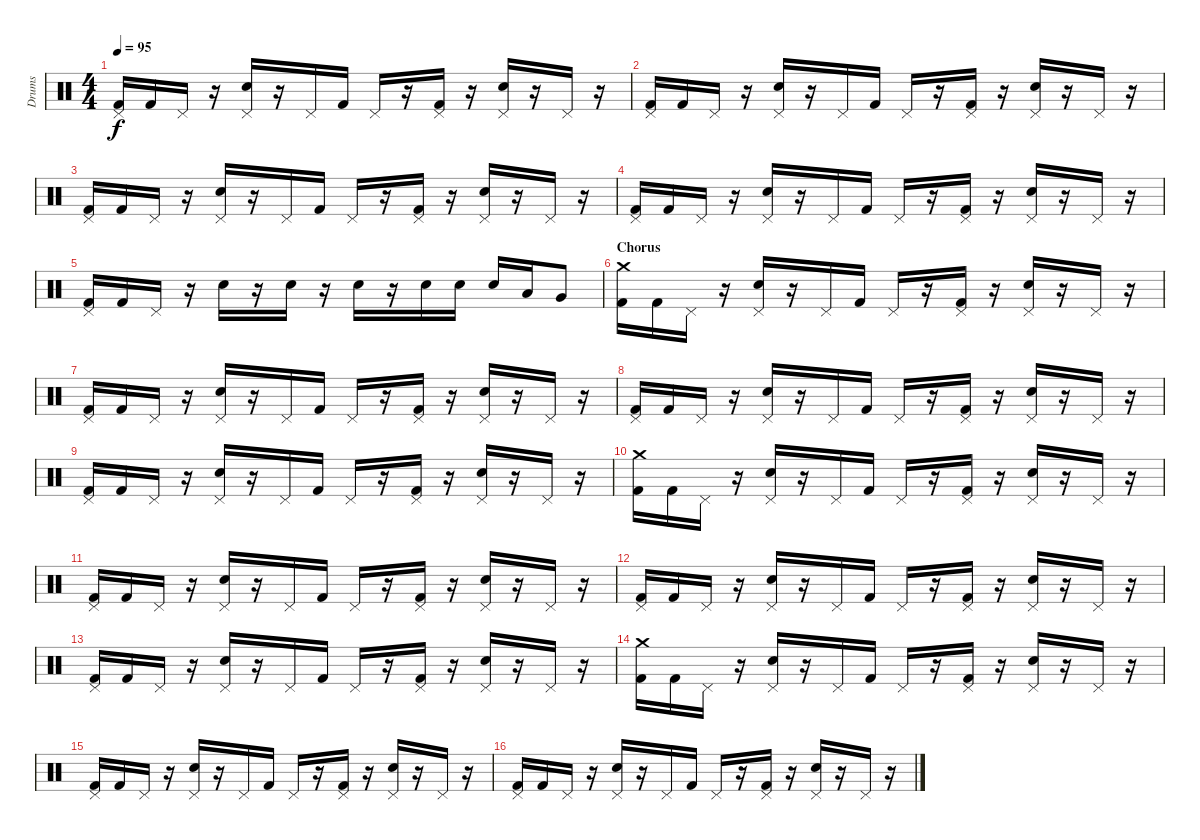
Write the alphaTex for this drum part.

\track ("Drums" "Drums") {instrument percussion}
\staff {score}
\articulation defaults
\ts (4 4)
\tempo 95
\clef neutral
\ks c
("Pedal Hi-Hat (hit)" "Kick (hit) 2").16{dy f} "Kick (hit) 2".16 "Pedal Hi-Hat (hit)".16 r.16 ("Pedal Hi-Hat (hit)" "Electric Snare (hit)").16 r.16 "Pedal Hi-Hat (hit)".16 "Kick (hit) 2".16 "Pedal Hi-Hat (hit)".16 r.16 ("Pedal Hi-Hat (hit)" "Kick (hit) 2").16 r.16 ("Pedal Hi-Hat (hit)" "Electric Snare (hit)").16 r.16 "Pedal Hi-Hat (hit)".16 r.16 |
("Pedal Hi-Hat (hit)" "Kick (hit) 2").16 "Kick (hit) 2".16 "Pedal Hi-Hat (hit)".16 r.16 ("Pedal Hi-Hat (hit)" "Electric Snare (hit)").16 r.16 "Pedal Hi-Hat (hit)".16 "Kick (hit) 2".16 "Pedal Hi-Hat (hit)".16 r.16 ("Pedal Hi-Hat (hit)" "Kick (hit) 2").16 r.16 ("Pedal Hi-Hat (hit)" "Electric Snare (hit)").16 r.16 "Pedal Hi-Hat (hit)".16 r.16 |
("Pedal Hi-Hat (hit)" "Kick (hit) 2").16 "Kick (hit) 2".16 "Pedal Hi-Hat (hit)".16 r.16 ("Pedal Hi-Hat (hit)" "Electric Snare (hit)").16 r.16 "Pedal Hi-Hat (hit)".16 "Kick (hit) 2".16 "Pedal Hi-Hat (hit)".16 r.16 ("Pedal Hi-Hat (hit)" "Kick (hit) 2").16 r.16 ("Pedal Hi-Hat (hit)" "Electric Snare (hit)").16 r.16 "Pedal Hi-Hat (hit)".16 r.16 |
("Pedal Hi-Hat (hit)" "Kick (hit) 2").16 "Kick (hit) 2".16 "Pedal Hi-Hat (hit)".16 r.16 ("Pedal Hi-Hat (hit)" "Electric Snare (hit)").16 r.16 "Pedal Hi-Hat (hit)".16 "Kick (hit) 2".16 "Pedal Hi-Hat (hit)".16 r.16 ("Pedal Hi-Hat (hit)" "Kick (hit) 2").16 r.16 ("Pedal Hi-Hat (hit)" "Electric Snare (hit)").16 r.16 "Pedal Hi-Hat (hit)".16 r.16 |
("Pedal Hi-Hat (hit)" "Kick (hit) 2").16 "Kick (hit) 2".16 "Pedal Hi-Hat (hit)".16 r.16 "Electric Snare (hit)".16 r.16 "Electric Snare (hit)".16 r.16 "Electric Snare (hit)".16 r.16 "Electric Snare (hit)".16 "Electric Snare (hit)".16 "Electric Snare (hit)".16 "Low Tom (hit)".16 "Very Low Tom (hit)".8 |
\section ("" "Chorus")
("Crash medium (hit)" "Kick (hit) 2").16 "Kick (hit) 2".16 "Pedal Hi-Hat (hit)".16 r.16 ("Pedal Hi-Hat (hit)" "Electric Snare (hit)").16 r.16 "Pedal Hi-Hat (hit)".16 "Kick (hit) 2".16 "Pedal Hi-Hat (hit)".16 r.16 ("Pedal Hi-Hat (hit)" "Kick (hit) 2").16 r.16 ("Pedal Hi-Hat (hit)" "Electric Snare (hit)").16 r.16 "Pedal Hi-Hat (hit)".16 r.16 |
("Pedal Hi-Hat (hit)" "Kick (hit) 2").16 "Kick (hit) 2".16 "Pedal Hi-Hat (hit)".16 r.16 ("Pedal Hi-Hat (hit)" "Electric Snare (hit)").16 r.16 "Pedal Hi-Hat (hit)".16 "Kick (hit) 2".16 "Pedal Hi-Hat (hit)".16 r.16 ("Pedal Hi-Hat (hit)" "Kick (hit) 2").16 r.16 ("Pedal Hi-Hat (hit)" "Electric Snare (hit)").16 r.16 "Pedal Hi-Hat (hit)".16 r.16 |
("Pedal Hi-Hat (hit)" "Kick (hit) 2").16 "Kick (hit) 2".16 "Pedal Hi-Hat (hit)".16 r.16 ("Pedal Hi-Hat (hit)" "Electric Snare (hit)").16 r.16 "Pedal Hi-Hat (hit)".16 "Kick (hit) 2".16 "Pedal Hi-Hat (hit)".16 r.16 ("Pedal Hi-Hat (hit)" "Kick (hit) 2").16 r.16 ("Pedal Hi-Hat (hit)" "Electric Snare (hit)").16 r.16 "Pedal Hi-Hat (hit)".16 r.16 |
("Pedal Hi-Hat (hit)" "Kick (hit) 2").16 "Kick (hit) 2".16 "Pedal Hi-Hat (hit)".16 r.16 ("Pedal Hi-Hat (hit)" "Electric Snare (hit)").16 r.16 "Pedal Hi-Hat (hit)".16 "Kick (hit) 2".16 "Pedal Hi-Hat (hit)".16 r.16 ("Pedal Hi-Hat (hit)" "Kick (hit) 2").16 r.16 ("Pedal Hi-Hat (hit)" "Electric Snare (hit)").16 r.16 "Pedal Hi-Hat (hit)".16 r.16 |
("Crash medium (hit)" "Kick (hit) 2").16 "Kick (hit) 2".16 "Pedal Hi-Hat (hit)".16 r.16 ("Pedal Hi-Hat (hit)" "Electric Snare (hit)").16 r.16 "Pedal Hi-Hat (hit)".16 "Kick (hit) 2".16 "Pedal Hi-Hat (hit)".16 r.16 ("Pedal Hi-Hat (hit)" "Kick (hit) 2").16 r.16 ("Pedal Hi-Hat (hit)" "Electric Snare (hit)").16 r.16 "Pedal Hi-Hat (hit)".16 r.16 |
("Pedal Hi-Hat (hit)" "Kick (hit) 2").16 "Kick (hit) 2".16 "Pedal Hi-Hat (hit)".16 r.16 ("Pedal Hi-Hat (hit)" "Electric Snare (hit)").16 r.16 "Pedal Hi-Hat (hit)".16 "Kick (hit) 2".16 "Pedal Hi-Hat (hit)".16 r.16 ("Pedal Hi-Hat (hit)" "Kick (hit) 2").16 r.16 ("Pedal Hi-Hat (hit)" "Electric Snare (hit)").16 r.16 "Pedal Hi-Hat (hit)".16 r.16 |
("Pedal Hi-Hat (hit)" "Kick (hit) 2").16 "Kick (hit) 2".16 "Pedal Hi-Hat (hit)".16 r.16 ("Pedal Hi-Hat (hit)" "Electric Snare (hit)").16 r.16 "Pedal Hi-Hat (hit)".16 "Kick (hit) 2".16 "Pedal Hi-Hat (hit)".16 r.16 ("Pedal Hi-Hat (hit)" "Kick (hit) 2").16 r.16 ("Pedal Hi-Hat (hit)" "Electric Snare (hit)").16 r.16 "Pedal Hi-Hat (hit)".16 r.16 |
("Pedal Hi-Hat (hit)" "Kick (hit) 2").16 "Kick (hit) 2".16 "Pedal Hi-Hat (hit)".16 r.16 ("Pedal Hi-Hat (hit)" "Electric Snare (hit)").16 r.16 "Pedal Hi-Hat (hit)".16 "Kick (hit) 2".16 "Pedal Hi-Hat (hit)".16 r.16 ("Pedal Hi-Hat (hit)" "Kick (hit) 2").16 r.16 ("Pedal Hi-Hat (hit)" "Electric Snare (hit)").16 r.16 "Pedal Hi-Hat (hit)".16 r.16 |
("Crash medium (hit)" "Kick (hit) 2").16 "Kick (hit) 2".16 "Pedal Hi-Hat (hit)".16 r.16 ("Pedal Hi-Hat (hit)" "Electric Snare (hit)").16 r.16 "Pedal Hi-Hat (hit)".16 "Kick (hit) 2".16 "Pedal Hi-Hat (hit)".16 r.16 ("Pedal Hi-Hat (hit)" "Kick (hit) 2").16 r.16 ("Pedal Hi-Hat (hit)" "Electric Snare (hit)").16 r.16 "Pedal Hi-Hat (hit)".16 r.16 |
("Pedal Hi-Hat (hit)" "Kick (hit) 2").16 "Kick (hit) 2".16 "Pedal Hi-Hat (hit)".16 r.16 ("Pedal Hi-Hat (hit)" "Electric Snare (hit)").16 r.16 "Pedal Hi-Hat (hit)".16 "Kick (hit) 2".16 "Pedal Hi-Hat (hit)".16 r.16 ("Pedal Hi-Hat (hit)" "Kick (hit) 2").16 r.16 ("Pedal Hi-Hat (hit)" "Electric Snare (hit)").16 r.16 "Pedal Hi-Hat (hit)".16 r.16 |
("Pedal Hi-Hat (hit)" "Kick (hit) 2").16 "Kick (hit) 2".16 "Pedal Hi-Hat (hit)".16 r.16 ("Pedal Hi-Hat (hit)" "Electric Snare (hit)").16 r.16 "Pedal Hi-Hat (hit)".16 "Kick (hit) 2".16 "Pedal Hi-Hat (hit)".16 r.16 ("Pedal Hi-Hat (hit)" "Kick (hit) 2").16 r.16 ("Pedal Hi-Hat (hit)" "Electric Snare (hit)").16 r.16 "Pedal Hi-Hat (hit)".16 r.16
